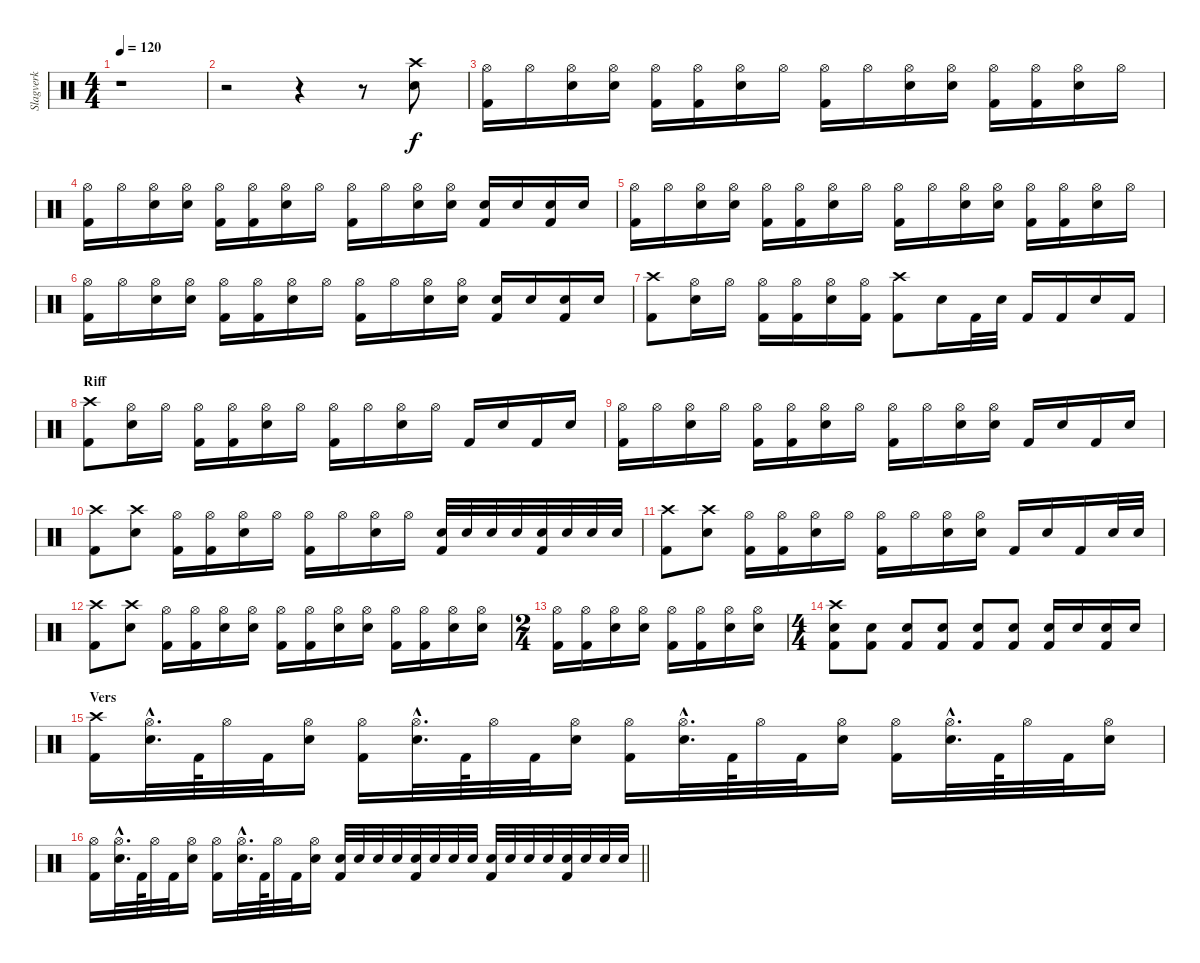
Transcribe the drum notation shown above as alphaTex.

\track ("Slagverk" "Slagverk") {instrument percussion}
\staff {score}
\articulation defaults
\ts (4 4)
\tempo 120
\clef neutral
\ks c
r.1{dy f} |
r.2 r.4 r.8 ("Crash high (hit)" "Electric Snare (hit)").8 |
("Hi-Hat (open)" "Kick (hit) 2").16 "Hi-Hat (open)".16 ("Hi-Hat (open)" "Electric Snare (hit)").16 ("Hi-Hat (open)" "Electric Snare (hit)").16 ("Hi-Hat (open)" "Kick (hit) 2").16 ("Hi-Hat (open)" "Kick (hit) 2").16 ("Hi-Hat (open)" "Electric Snare (hit)").16 "Hi-Hat (open)".16 ("Hi-Hat (open)" "Kick (hit) 2").16 "Hi-Hat (open)".16 ("Hi-Hat (open)" "Electric Snare (hit)").16 ("Hi-Hat (open)" "Electric Snare (hit)").16 ("Hi-Hat (open)" "Kick (hit) 2").16 ("Hi-Hat (open)" "Kick (hit) 2").16 ("Hi-Hat (open)" "Electric Snare (hit)").16 "Hi-Hat (open)".16 |
("Hi-Hat (open)" "Kick (hit) 2").16 "Hi-Hat (open)".16 ("Hi-Hat (open)" "Electric Snare (hit)").16 ("Hi-Hat (open)" "Electric Snare (hit)").16 ("Hi-Hat (open)" "Kick (hit) 2").16 ("Hi-Hat (open)" "Kick (hit) 2").16 ("Hi-Hat (open)" "Electric Snare (hit)").16 "Hi-Hat (open)".16 ("Hi-Hat (open)" "Kick (hit) 2").16 "Hi-Hat (open)".16 ("Hi-Hat (open)" "Electric Snare (hit)").16 ("Hi-Hat (open)" "Electric Snare (hit)").16 ("Electric Snare (hit)" "Kick (hit) 2").16 "Electric Snare (hit)".16 ("Electric Snare (hit)" "Kick (hit) 2").16 "Electric Snare (hit)".16 |
("Hi-Hat (open)" "Kick (hit) 2").16 "Hi-Hat (open)".16 ("Hi-Hat (open)" "Electric Snare (hit)").16 ("Hi-Hat (open)" "Electric Snare (hit)").16 ("Hi-Hat (open)" "Kick (hit) 2").16 ("Hi-Hat (open)" "Kick (hit) 2").16 ("Hi-Hat (open)" "Electric Snare (hit)").16 "Hi-Hat (open)".16 ("Hi-Hat (open)" "Kick (hit) 2").16 "Hi-Hat (open)".16 ("Hi-Hat (open)" "Electric Snare (hit)").16 ("Hi-Hat (open)" "Electric Snare (hit)").16 ("Hi-Hat (open)" "Kick (hit) 2").16 ("Hi-Hat (open)" "Kick (hit) 2").16 ("Hi-Hat (open)" "Electric Snare (hit)").16 "Hi-Hat (open)".16 |
("Hi-Hat (open)" "Kick (hit) 2").16 "Hi-Hat (open)".16 ("Hi-Hat (open)" "Electric Snare (hit)").16 ("Hi-Hat (open)" "Electric Snare (hit)").16 ("Hi-Hat (open)" "Kick (hit) 2").16 ("Hi-Hat (open)" "Kick (hit) 2").16 ("Hi-Hat (open)" "Electric Snare (hit)").16 "Hi-Hat (open)".16 ("Hi-Hat (open)" "Kick (hit) 2").16 "Hi-Hat (open)".16 ("Hi-Hat (open)" "Electric Snare (hit)").16 ("Hi-Hat (open)" "Electric Snare (hit)").16 ("Electric Snare (hit)" "Kick (hit) 2").16 "Electric Snare (hit)".16 ("Electric Snare (hit)" "Kick (hit) 2").16 "Electric Snare (hit)".16 |
("Crash high (hit)" "Kick (hit) 2").8 ("Hi-Hat (open)" "Electric Snare (hit)").16 "Hi-Hat (open)".16 ("Hi-Hat (open)" "Kick (hit) 2").16 ("Hi-Hat (open)" "Kick (hit) 2").16 ("Hi-Hat (open)" "Electric Snare (hit)").16 ("Hi-Hat (open)" "Kick (hit) 2").16 ("Crash high (hit)" "Kick (hit) 2").8 "Electric Snare (hit)".16 "Kick (hit) 2".32 "Electric Snare (hit)".32 "Kick (hit) 2".16 "Kick (hit) 2".16 "Electric Snare (hit)".16 "Kick (hit) 2".16 |
\section ("" "Riff")
("Crash high (hit)" "Kick (hit) 2").8 ("Hi-Hat (open)" "Electric Snare (hit)").16 "Hi-Hat (open)".16 ("Hi-Hat (open)" "Kick (hit) 2").16 ("Hi-Hat (open)" "Kick (hit) 2").16 ("Hi-Hat (open)" "Electric Snare (hit)").16 "Hi-Hat (open)".16 ("Hi-Hat (open)" "Kick (hit) 2").16 "Hi-Hat (open)".16 ("Hi-Hat (open)" "Electric Snare (hit)").16 "Hi-Hat (open)".16 "Kick (hit) 2".16 "Electric Snare (hit)".16 "Kick (hit) 2".16 "Electric Snare (hit)".16 |
("Hi-Hat (open)" "Kick (hit) 2").16 "Hi-Hat (open)".16 ("Hi-Hat (open)" "Electric Snare (hit)").16 "Hi-Hat (open)".16 ("Hi-Hat (open)" "Kick (hit) 2").16 ("Hi-Hat (open)" "Kick (hit) 2").16 ("Hi-Hat (open)" "Electric Snare (hit)").16 "Hi-Hat (open)".16 ("Hi-Hat (open)" "Kick (hit) 2").16 "Hi-Hat (open)".16 ("Hi-Hat (open)" "Electric Snare (hit)").16 ("Hi-Hat (open)" "Electric Snare (hit)").16 "Kick (hit) 2".16 "Electric Snare (hit)".16 "Kick (hit) 2".16 "Electric Snare (hit)".16 |
("Crash high (hit)" "Kick (hit) 2").8 ("Crash high (hit)" "Electric Snare (hit)").8 ("Hi-Hat (open)" "Kick (hit) 2").16 ("Hi-Hat (open)" "Kick (hit) 2").16 ("Hi-Hat (open)" "Electric Snare (hit)").16 "Hi-Hat (open)".16 ("Hi-Hat (open)" "Kick (hit) 2").16 "Hi-Hat (open)".16 ("Hi-Hat (open)" "Electric Snare (hit)").16 "Hi-Hat (open)".16 ("Electric Snare (hit)" "Kick (hit) 2").32 "Electric Snare (hit)".32 "Electric Snare (hit)".32 "Electric Snare (hit)".32 ("Electric Snare (hit)" "Kick (hit) 2").32 "Electric Snare (hit)".32 "Electric Snare (hit)".32 "Electric Snare (hit)".32 |
("Crash high (hit)" "Kick (hit) 2").8 ("Crash high (hit)" "Electric Snare (hit)").8 ("Hi-Hat (open)" "Kick (hit) 2").16 ("Hi-Hat (open)" "Kick (hit) 2").16 ("Hi-Hat (open)" "Electric Snare (hit)").16 "Hi-Hat (open)".16 ("Hi-Hat (open)" "Kick (hit) 2").16 "Hi-Hat (open)".16 ("Hi-Hat (open)" "Electric Snare (hit)").16 ("Hi-Hat (open)" "Electric Snare (hit)").16 "Kick (hit) 2".16 "Electric Snare (hit)".16 "Kick (hit) 2".16 "Electric Snare (hit)".32 "Electric Snare (hit)".32 |
("Crash high (hit)" "Kick (hit) 2").8 ("Crash high (hit)" "Electric Snare (hit)").8 ("Hi-Hat (open)" "Kick (hit) 2").16 ("Hi-Hat (open)" "Kick (hit) 2").16 ("Hi-Hat (open)" "Electric Snare (hit)").16 ("Hi-Hat (open)" "Electric Snare (hit)").16 ("Hi-Hat (open)" "Kick (hit) 2").16 ("Hi-Hat (open)" "Kick (hit) 2").16 ("Hi-Hat (open)" "Electric Snare (hit)").16 ("Hi-Hat (open)" "Electric Snare (hit)").16 ("Hi-Hat (open)" "Kick (hit) 2").16 ("Hi-Hat (open)" "Kick (hit) 2").16 ("Hi-Hat (open)" "Electric Snare (hit)").16 ("Hi-Hat (open)" "Electric Snare (hit)").16 |
\ts (2 4)
("Hi-Hat (open)" "Kick (hit) 2").16 ("Hi-Hat (open)" "Kick (hit) 2").16 ("Hi-Hat (open)" "Electric Snare (hit)").16 ("Hi-Hat (open)" "Electric Snare (hit)").16 ("Hi-Hat (open)" "Kick (hit) 2").16 ("Hi-Hat (open)" "Kick (hit) 2").16 ("Hi-Hat (open)" "Electric Snare (hit)").16 ("Hi-Hat (open)" "Electric Snare (hit)").16 |
\ts (4 4)
("Crash high (hit)" "Electric Snare (hit)" "Kick (hit) 2").8 ("Electric Snare (hit)" "Kick (hit) 2").8 ("Electric Snare (hit)" "Kick (hit) 2").8 ("Electric Snare (hit)" "Kick (hit) 2").8 ("Electric Snare (hit)" "Kick (hit) 2").8 ("Electric Snare (hit)" "Kick (hit) 2").8 ("Electric Snare (hit)" "Kick (hit) 2").16 "Electric Snare (hit)".16 ("Electric Snare (hit)" "Kick (hit) 2").16 "Electric Snare (hit)".16 |
\section ("" "Vers")
("Crash high (hit)" "Kick (hit) 2").16 ("Hi-Hat (open)"{hac} "Electric Snare (hit)"{hac}).32{d} "Kick (hit) 2".64 "Hi-Hat (open)".32 "Kick (hit) 2".32 ("Hi-Hat (open)" "Electric Snare (hit)").16 ("Hi-Hat (open)" "Kick (hit) 2").16 ("Hi-Hat (open)"{hac} "Electric Snare (hit)"{hac}).32{d} "Kick (hit) 2".64 "Hi-Hat (open)".32 "Kick (hit) 2".32 ("Hi-Hat (open)" "Electric Snare (hit)").16 ("Hi-Hat (open)" "Kick (hit) 2").16 ("Hi-Hat (open)"{hac} "Electric Snare (hit)"{hac}).32{d} "Kick (hit) 2".64 "Hi-Hat (open)".32 "Kick (hit) 2".32 ("Hi-Hat (open)" "Electric Snare (hit)").16 ("Hi-Hat (open)" "Kick (hit) 2").16 ("Hi-Hat (open)"{hac} "Electric Snare (hit)"{hac}).32{d} "Kick (hit) 2".64 "Hi-Hat (open)".32 "Kick (hit) 2".32 ("Hi-Hat (open)" "Electric Snare (hit)").16 |
\barLineRight lightlight
("Hi-Hat (open)" "Kick (hit) 2").16 ("Hi-Hat (open)"{hac} "Electric Snare (hit)"{hac}).32{d} "Kick (hit) 2".64 "Hi-Hat (open)".32 "Kick (hit) 2".32 ("Hi-Hat (open)" "Electric Snare (hit)").16 ("Hi-Hat (open)" "Kick (hit) 2").16 ("Hi-Hat (open)"{hac} "Electric Snare (hit)"{hac}).32{d} "Kick (hit) 2".64 "Hi-Hat (open)".32 "Kick (hit) 2".32 ("Hi-Hat (open)" "Electric Snare (hit)").16 ("Electric Snare (hit)" "Kick (hit) 2").32 "Electric Snare (hit)".32 "Electric Snare (hit)".32 "Electric Snare (hit)".32 ("Electric Snare (hit)" "Kick (hit) 2").32 "Electric Snare (hit)".32 "Electric Snare (hit)".32 "Electric Snare (hit)".32 ("Electric Snare (hit)" "Kick (hit) 2").32 "Electric Snare (hit)".32 "Electric Snare (hit)".32 "Electric Snare (hit)".32 ("Electric Snare (hit)" "Kick (hit) 2").32 "Electric Snare (hit)".32 "Electric Snare (hit)".32 "Electric Snare (hit)".32
